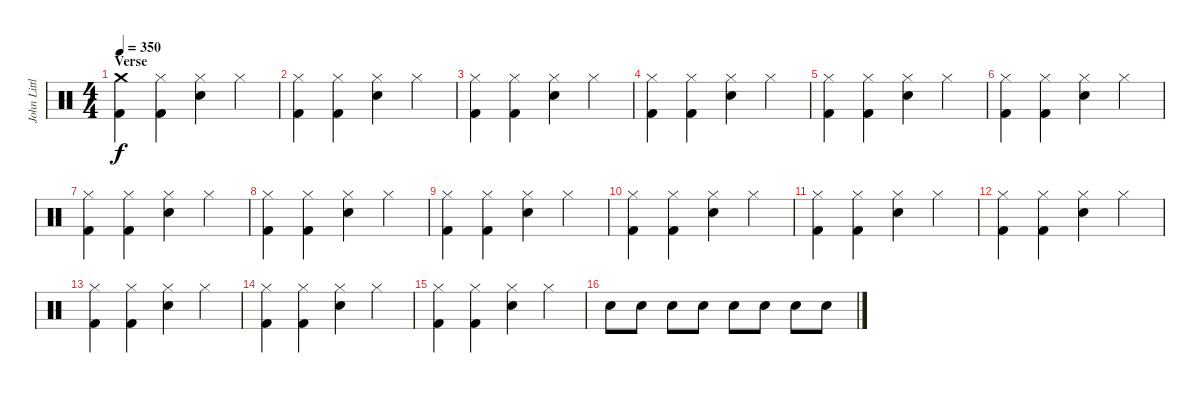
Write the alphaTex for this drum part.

\track ("John Littler - Drums" "John Littl") {instrument percussion}
\staff {score}
\articulation defaults
\ts (4 4)
\section ("" "Verse")
\tempo 350
\clef neutral
\ks c
("Crash medium (hit)" "Kick (hit) 2").4{dy f} ("Hi-Hat (closed)" "Kick (hit) 2").4 ("Hi-Hat (closed)" "Snare (hit) 2").4 "Hi-Hat (closed)".4 |
("Hi-Hat (closed)" "Kick (hit) 2").4 ("Hi-Hat (closed)" "Kick (hit) 2").4 ("Hi-Hat (closed)" "Snare (hit) 2").4 "Hi-Hat (closed)".4 |
("Hi-Hat (closed)" "Kick (hit) 2").4 ("Hi-Hat (closed)" "Kick (hit) 2").4 ("Hi-Hat (closed)" "Snare (hit) 2").4 "Hi-Hat (closed)".4 |
("Hi-Hat (closed)" "Kick (hit) 2").4 ("Hi-Hat (closed)" "Kick (hit) 2").4 ("Hi-Hat (closed)" "Snare (hit) 2").4 "Hi-Hat (closed)".4 |
("Hi-Hat (closed)" "Kick (hit) 2").4 ("Hi-Hat (closed)" "Kick (hit) 2").4 ("Hi-Hat (closed)" "Snare (hit) 2").4 "Hi-Hat (closed)".4 |
("Hi-Hat (closed)" "Kick (hit) 2").4 ("Hi-Hat (closed)" "Kick (hit) 2").4 ("Hi-Hat (closed)" "Snare (hit) 2").4 "Hi-Hat (closed)".4 |
("Hi-Hat (closed)" "Kick (hit) 2").4 ("Hi-Hat (closed)" "Kick (hit) 2").4 ("Hi-Hat (closed)" "Snare (hit) 2").4 "Hi-Hat (closed)".4 |
("Hi-Hat (closed)" "Kick (hit) 2").4 ("Hi-Hat (closed)" "Kick (hit) 2").4 ("Hi-Hat (closed)" "Snare (hit) 2").4 "Hi-Hat (closed)".4 |
("Hi-Hat (closed)" "Kick (hit) 2").4 ("Hi-Hat (closed)" "Kick (hit) 2").4 ("Hi-Hat (closed)" "Snare (hit) 2").4 "Hi-Hat (closed)".4 |
("Hi-Hat (closed)" "Kick (hit) 2").4 ("Hi-Hat (closed)" "Kick (hit) 2").4 ("Hi-Hat (closed)" "Snare (hit) 2").4 "Hi-Hat (closed)".4 |
("Hi-Hat (closed)" "Kick (hit) 2").4 ("Hi-Hat (closed)" "Kick (hit) 2").4 ("Hi-Hat (closed)" "Snare (hit) 2").4 "Hi-Hat (closed)".4 |
("Hi-Hat (closed)" "Kick (hit) 2").4 ("Hi-Hat (closed)" "Kick (hit) 2").4 ("Hi-Hat (closed)" "Snare (hit) 2").4 "Hi-Hat (closed)".4 |
("Hi-Hat (closed)" "Kick (hit) 2").4 ("Hi-Hat (closed)" "Kick (hit) 2").4 ("Hi-Hat (closed)" "Snare (hit) 2").4 "Hi-Hat (closed)".4 |
("Hi-Hat (closed)" "Kick (hit) 2").4 ("Hi-Hat (closed)" "Kick (hit) 2").4 ("Hi-Hat (closed)" "Snare (hit) 2").4 "Hi-Hat (closed)".4 |
("Hi-Hat (closed)" "Kick (hit) 2").4 ("Hi-Hat (closed)" "Kick (hit) 2").4 ("Hi-Hat (closed)" "Snare (hit) 2").4 "Hi-Hat (closed)".4 |
"Snare (hit) 2".8 "Snare (hit) 2".8 "Snare (hit) 2".8 "Snare (hit) 2".8 "Snare (hit) 2".8 "Snare (hit) 2".8 "Snare (hit) 2".8 "Snare (hit) 2".8
